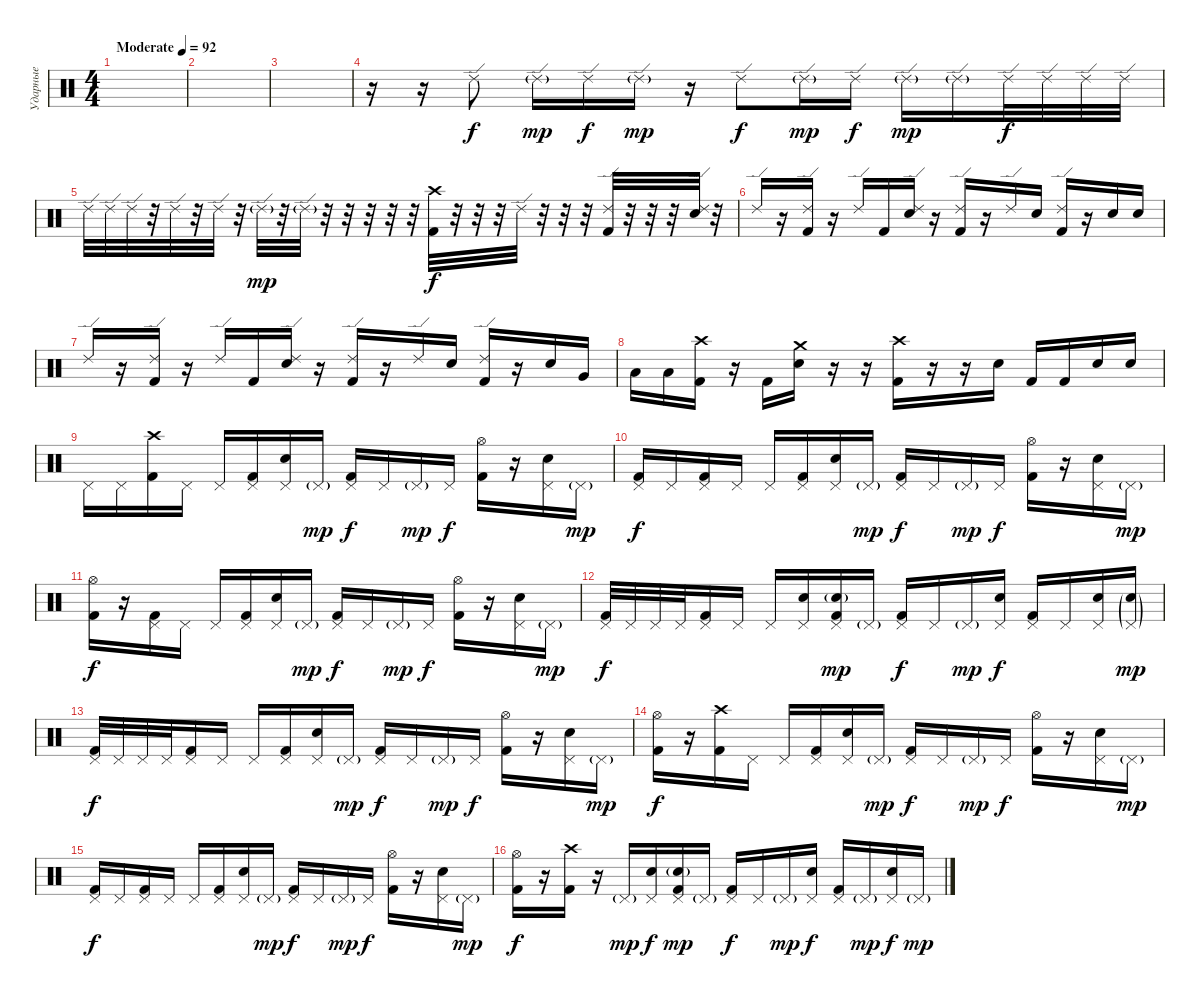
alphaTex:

\track ("Ударные" "Ударные") {instrument percussion}
\staff {score}
\articulation defaults
\ts (4 4)
\tempo (92 "Moderate")
\clef neutral
\ks c
|
|
|
r.16 r.16 "Ride (edge) 2".8 "Ride (edge) 2"{g}.16{dy mp} "Ride (edge) 2".16{dy f} "Ride (edge) 2"{g}.16{dy mp} r.16 "Ride (edge) 2".8{dy f} "Ride (edge) 2"{g}.16{dy mp} "Ride (edge) 2".16{dy f} "Ride (edge) 2"{g}.16{dy mp} "Ride (edge) 2"{g}.16 "Ride (edge) 2".32{dy f} "Ride (edge) 2".32 "Ride (edge) 2".32 "Ride (edge) 2".32 |
"Ride (edge) 2".32 "Ride (edge) 2".32 "Ride (edge) 2".32 r.32 "Ride (edge) 2".32 r.32 "Ride (edge) 2".32 r.32 "Ride (edge) 2"{g}.32{dy mp} r.32 "Ride (edge) 2"{g}.32 r.32 r.32 r.32 r.32 r.32 ("Crash high (hit)" "Kick (hit) 2").32{dy f} r.32 r.32 r.32 "Ride (edge) 2".32 r.32 r.32 r.32 ("Ride (edge) 2" "Kick (hit) 2").32 r.32 r.32 r.32 ("Ride (edge) 2" "Electric Snare (hit)").32 r.32 |
"Ride (edge) 2".16 r.16 ("Ride (edge) 2" "Kick (hit) 2").16 r.16 "Ride (edge) 2".16 "Kick (hit) 2".16 ("Ride (edge) 2" "Electric Snare (hit)").16 r.16 ("Ride (edge) 2" "Kick (hit) 2").16 r.16 "Ride (edge) 2".16 "Electric Snare (hit)".16 ("Ride (edge) 2" "Kick (hit) 2").16 r.16 "Electric Snare (hit)".16 "Electric Snare (hit)".16 |
"Ride (edge) 2".16 r.16 ("Ride (edge) 2" "Kick (hit) 2").16 r.16 "Ride (edge) 2".16 "Kick (hit) 2".16 ("Ride (edge) 2" "Electric Snare (hit)").16 r.16 ("Ride (edge) 2" "Kick (hit) 2").16 r.16 "Ride (edge) 2".16 "Electric Snare (hit)".16 ("Ride (edge) 2" "Kick (hit) 2").16 r.16 "Electric Snare (hit)".16 "Very Low Tom (hit)".16 |
"Low Tom (hit)".16 "Low Tom (hit)".16 ("Crash high (hit)" "Kick (hit) 2").16 r.16 "Kick (hit) 2".16 ("Crash medium (hit)" "Electric Snare (hit)").16 r.16 r.16 ("Crash high (hit)" "Kick (hit) 2").16 r.16 r.16 "Electric Snare (hit)".16 "Kick (hit) 2".16 "Kick (hit) 2".16 "Electric Snare (hit)".16 "Electric Snare (hit)".16 |
"Pedal Hi-Hat (hit)".16 "Pedal Hi-Hat (hit)".16 ("Crash high (hit)" "Kick (hit) 2").16 "Pedal Hi-Hat (hit)".16 "Pedal Hi-Hat (hit)".16 ("Pedal Hi-Hat (hit)" "Kick (hit) 2").16 ("Pedal Hi-Hat (hit)" "Electric Snare (hit)").16 "Pedal Hi-Hat (hit)"{g}.16{dy mp} ("Pedal Hi-Hat (hit)" "Kick (hit) 2").16{dy f} "Pedal Hi-Hat (hit)".16 "Pedal Hi-Hat (hit)"{g}.16{dy mp} "Pedal Hi-Hat (hit)".16{dy f} ("Hi-Hat (open)" "Kick (hit) 2").16 r.16 ("Pedal Hi-Hat (hit)" "Electric Snare (hit)").16 "Pedal Hi-Hat (hit)"{g}.16{dy mp} |
("Pedal Hi-Hat (hit)" "Kick (hit) 2").16{dy f} "Pedal Hi-Hat (hit)".16 ("Pedal Hi-Hat (hit)" "Kick (hit) 2").16 "Pedal Hi-Hat (hit)".16 "Pedal Hi-Hat (hit)".16 ("Pedal Hi-Hat (hit)" "Kick (hit) 2").16 ("Pedal Hi-Hat (hit)" "Electric Snare (hit)").16 "Pedal Hi-Hat (hit)"{g}.16{dy mp} ("Pedal Hi-Hat (hit)" "Kick (hit) 2").16{dy f} "Pedal Hi-Hat (hit)".16 "Pedal Hi-Hat (hit)"{g}.16{dy mp} "Pedal Hi-Hat (hit)".16{dy f} ("Hi-Hat (open)" "Kick (hit) 2").16 r.16 ("Pedal Hi-Hat (hit)" "Electric Snare (hit)").16 "Pedal Hi-Hat (hit)"{g}.16{dy mp} |
("Hi-Hat (open)" "Kick (hit) 2").16{dy f} r.16 ("Pedal Hi-Hat (hit)" "Kick (hit) 2").16 "Pedal Hi-Hat (hit)".16 "Pedal Hi-Hat (hit)".16 ("Pedal Hi-Hat (hit)" "Kick (hit) 2").16 ("Pedal Hi-Hat (hit)" "Electric Snare (hit)").16 "Pedal Hi-Hat (hit)"{g}.16{dy mp} ("Pedal Hi-Hat (hit)" "Kick (hit) 2").16{dy f} "Pedal Hi-Hat (hit)".16 "Pedal Hi-Hat (hit)"{g}.16{dy mp} "Pedal Hi-Hat (hit)".16{dy f} ("Hi-Hat (open)" "Kick (hit) 2").16 r.16 ("Pedal Hi-Hat (hit)" "Electric Snare (hit)").16 "Pedal Hi-Hat (hit)"{g}.16{dy mp} |
("Pedal Hi-Hat (hit)" "Kick (hit) 2").32{dy f} "Pedal Hi-Hat (hit)".32 "Pedal Hi-Hat (hit)".32 "Pedal Hi-Hat (hit)".32 ("Pedal Hi-Hat (hit)" "Kick (hit) 2").16 "Pedal Hi-Hat (hit)".16 "Pedal Hi-Hat (hit)".16 ("Pedal Hi-Hat (hit)" "Electric Snare (hit)").16 ("Pedal Hi-Hat (hit)" "Electric Snare (hit)"{g} "Kick (hit) 2").16{dy mp} "Pedal Hi-Hat (hit)"{g}.16 ("Pedal Hi-Hat (hit)" "Kick (hit) 2").16{dy f} "Pedal Hi-Hat (hit)".16 "Pedal Hi-Hat (hit)"{g}.16{dy mp} ("Pedal Hi-Hat (hit)" "Electric Snare (hit)").16{dy f} ("Pedal Hi-Hat (hit)" "Kick (hit) 2").16 "Pedal Hi-Hat (hit)".16 ("Pedal Hi-Hat (hit)" "Electric Snare (hit)").16 ("Pedal Hi-Hat (hit)"{g} "Electric Snare (hit)"{g}).16{dy mp} |
("Pedal Hi-Hat (hit)" "Kick (hit) 2").32{dy f} "Pedal Hi-Hat (hit)".32 "Pedal Hi-Hat (hit)".32 "Pedal Hi-Hat (hit)".32 ("Pedal Hi-Hat (hit)" "Kick (hit) 2").16 "Pedal Hi-Hat (hit)".16 "Pedal Hi-Hat (hit)".16 ("Pedal Hi-Hat (hit)" "Kick (hit) 2").16 ("Pedal Hi-Hat (hit)" "Electric Snare (hit)").16 "Pedal Hi-Hat (hit)"{g}.16{dy mp} ("Pedal Hi-Hat (hit)" "Kick (hit) 2").16{dy f} "Pedal Hi-Hat (hit)".16 "Pedal Hi-Hat (hit)"{g}.16{dy mp} "Pedal Hi-Hat (hit)".16{dy f} ("Hi-Hat (open)" "Kick (hit) 2").16 r.16 ("Pedal Hi-Hat (hit)" "Electric Snare (hit)").16 "Pedal Hi-Hat (hit)"{g}.16{dy mp} |
("Hi-Hat (open)" "Kick (hit) 2").16{dy f} r.16 ("Crash high (hit)" "Kick (hit) 2").16 "Pedal Hi-Hat (hit)".16 "Pedal Hi-Hat (hit)".16 ("Pedal Hi-Hat (hit)" "Kick (hit) 2").16 ("Pedal Hi-Hat (hit)" "Electric Snare (hit)").16 "Pedal Hi-Hat (hit)"{g}.16{dy mp} ("Pedal Hi-Hat (hit)" "Kick (hit) 2").16{dy f} "Pedal Hi-Hat (hit)".16 "Pedal Hi-Hat (hit)"{g}.16{dy mp} "Pedal Hi-Hat (hit)".16{dy f} ("Hi-Hat (open)" "Kick (hit) 2").16 r.16 ("Pedal Hi-Hat (hit)" "Electric Snare (hit)").16 "Pedal Hi-Hat (hit)"{g}.16{dy mp} |
("Pedal Hi-Hat (hit)" "Kick (hit) 2").16{dy f} "Pedal Hi-Hat (hit)".16 ("Pedal Hi-Hat (hit)" "Kick (hit) 2").16 "Pedal Hi-Hat (hit)".16 "Pedal Hi-Hat (hit)".16 ("Pedal Hi-Hat (hit)" "Kick (hit) 2").16 ("Pedal Hi-Hat (hit)" "Electric Snare (hit)").16 "Pedal Hi-Hat (hit)"{g}.16{dy mp} ("Pedal Hi-Hat (hit)" "Kick (hit) 2").16{dy f} "Pedal Hi-Hat (hit)".16 "Pedal Hi-Hat (hit)"{g}.16{dy mp} "Pedal Hi-Hat (hit)".16{dy f} ("Hi-Hat (open)" "Kick (hit) 2").16 r.16 ("Pedal Hi-Hat (hit)" "Electric Snare (hit)").16 "Pedal Hi-Hat (hit)"{g}.16{dy mp} |
("Hi-Hat (open)" "Kick (hit) 2").16{dy f} r.16 ("Crash high (hit)" "Kick (hit) 2").16 r.16 "Pedal Hi-Hat (hit)"{g}.16{dy mp} ("Pedal Hi-Hat (hit)" "Electric Snare (hit)").16{dy f} ("Pedal Hi-Hat (hit)" "Electric Snare (hit)"{g} "Kick (hit) 2").16{dy mp} "Pedal Hi-Hat (hit)"{g}.16 ("Pedal Hi-Hat (hit)" "Kick (hit) 2").16{dy f} "Pedal Hi-Hat (hit)".16 "Pedal Hi-Hat (hit)"{g}.16{dy mp} ("Pedal Hi-Hat (hit)" "Electric Snare (hit)").16{dy f} ("Pedal Hi-Hat (hit)" "Kick (hit) 2").16 "Pedal Hi-Hat (hit)"{g}.16{dy mp} ("Pedal Hi-Hat (hit)" "Electric Snare (hit)").16{dy f} "Pedal Hi-Hat (hit)"{g}.16{dy mp}
